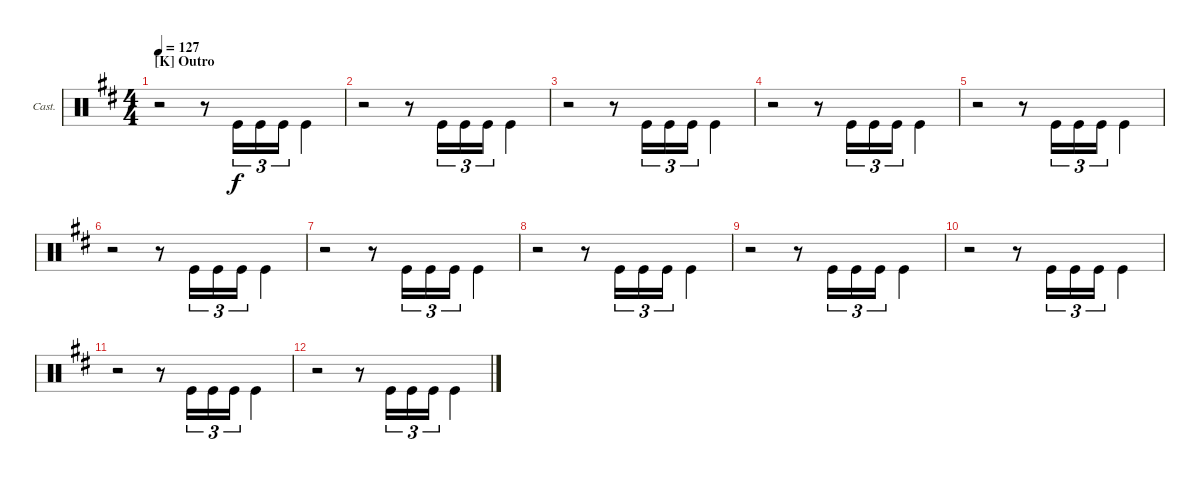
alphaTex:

\bracketExtendMode groupsimilarinstruments
\firstSystemTrackNameOrientation horizontal
\otherSystemsTrackNameOrientation horizontal
\track ("Castanets" "Cast.") {instrument percussion}
\staff {score}
\articulation defaults
\ts (4 4)
\section ("K" "Outro")
\tempo 127
\clef neutral
\scale
0.5
\ks d
r.2{dy f beam invert} r.8{beam invert} "Kick (hit)".16{tu (3 2) beam invert} "Kick (hit)".16{tu (3 2)} "Kick (hit)".16{tu (3 2)} "Kick (hit)".4{beam invert} |
\scale
0.5 r.2{beam invert} r.8{beam invert} "Kick (hit)".16{tu (3 2) beam invert} "Kick (hit)".16{tu (3 2)} "Kick (hit)".16{tu (3 2)} "Kick (hit)".4{beam invert} |
\scale
0.5 r.2{beam invert} r.8{beam invert} "Kick (hit)".16{tu (3 2) beam invert} "Kick (hit)".16{tu (3 2)} "Kick (hit)".16{tu (3 2)} "Kick (hit)".4{beam invert} |
\scale
0.5 r.2{beam invert} r.8{beam invert} "Kick (hit)".16{tu (3 2) beam invert} "Kick (hit)".16{tu (3 2)} "Kick (hit)".16{tu (3 2)} "Kick (hit)".4{beam invert} |
\scale
0.5 r.2{beam invert} r.8{beam invert} "Kick (hit)".16{tu (3 2) beam invert} "Kick (hit)".16{tu (3 2)} "Kick (hit)".16{tu (3 2)} "Kick (hit)".4{beam invert} |
\scale
0.5 r.2{beam invert} r.8{beam invert} "Kick (hit)".16{tu (3 2) beam invert} "Kick (hit)".16{tu (3 2)} "Kick (hit)".16{tu (3 2)} "Kick (hit)".4{beam invert} |
\scale
0.5 r.2{beam invert} r.8{beam invert} "Kick (hit)".16{tu (3 2) beam invert} "Kick (hit)".16{tu (3 2)} "Kick (hit)".16{tu (3 2)} "Kick (hit)".4{beam invert} |
\scale
0.5 r.2{beam invert} r.8{beam invert} "Kick (hit)".16{tu (3 2) beam invert} "Kick (hit)".16{tu (3 2)} "Kick (hit)".16{tu (3 2)} "Kick (hit)".4{beam invert} |
\scale
0.5 r.2{beam invert} r.8{beam invert} "Kick (hit)".16{tu (3 2) beam invert} "Kick (hit)".16{tu (3 2)} "Kick (hit)".16{tu (3 2)} "Kick (hit)".4{beam invert} |
\scale
0.5 r.2{beam invert} r.8{beam invert} "Kick (hit)".16{tu (3 2) beam invert} "Kick (hit)".16{tu (3 2)} "Kick (hit)".16{tu (3 2)} "Kick (hit)".4{beam invert} |
\scale
0.5 r.2{beam invert} r.8{beam invert} "Kick (hit)".16{tu (3 2) beam invert} "Kick (hit)".16{tu (3 2)} "Kick (hit)".16{tu (3 2)} "Kick (hit)".4{beam invert} |
\scale
0.5 r.2{beam invert} r.8{beam invert} "Kick (hit)".16{tu (3 2) beam invert} "Kick (hit)".16{tu (3 2)} "Kick (hit)".16{tu (3 2)} "Kick (hit)".4{beam invert}
